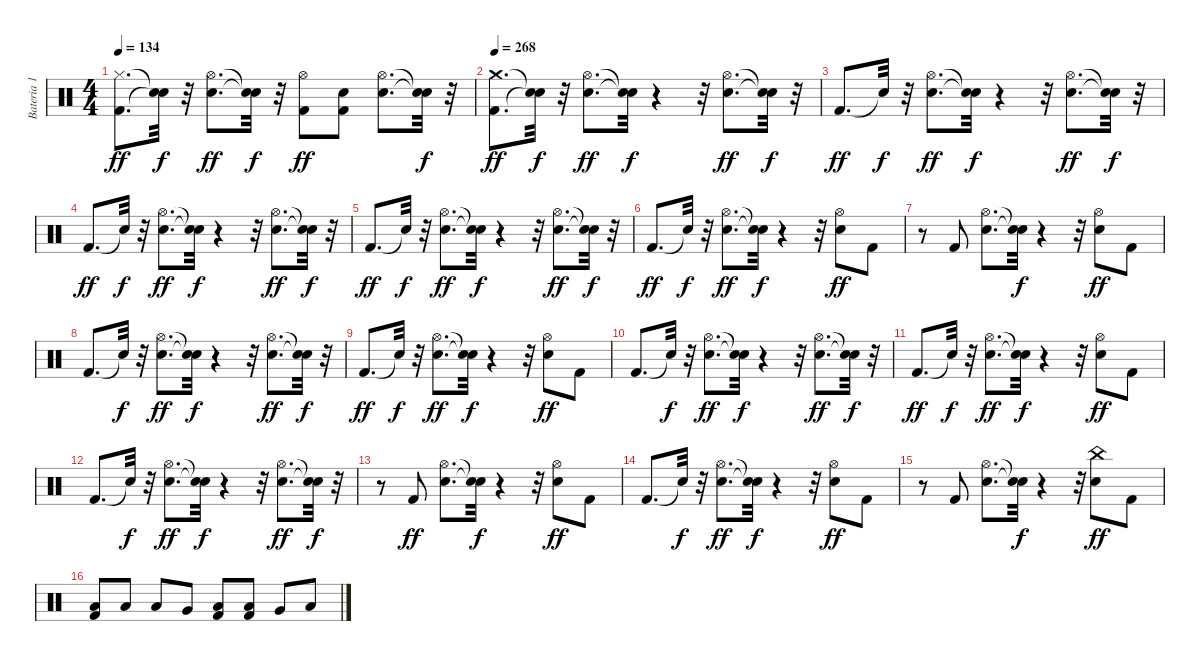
\track ("Bateria 1" "Bateria 1") {instrument percussion}
\staff {score}
\articulation defaults
\ts (4 4)
\tempo 134
\clef neutral
\ks c
("Kick (hit) 2" "Hi-Hat (closed)").8{d dy ff} ("Snare (hit)"{t} "Snare (hit)"{t}).32{dy f} r.32 ("Electric Snare (hit)" "Hi-Hat (open)").8{d dy ff} ("Snare (hit)"{t} "Snare (hit)"{t}).32{dy f} r.32 ("Kick (hit) 2" "Hi-Hat (open)").8{dy ff} ("Kick (hit) 2" "Electric Snare (hit)").8 ("Electric Snare (hit)" "Hi-Hat (open)").8{d} ("Snare (hit)"{t} "Snare (hit)"{t}).32{dy f} r.32 |
\tempo 268
("Kick (hit) 2" "Crash medium (hit)").8{d dy ff} ("Snare (hit)"{t} "Snare (hit)"{t}).32{dy f} r.32 ("Electric Snare (hit)" "Hi-Hat (open)").8{d dy ff} ("Snare (hit)"{t} "Snare (hit)"{t}).32{dy f} r.4 r.32 ("Electric Snare (hit)" "Hi-Hat (open)").8{d dy ff} ("Snare (hit)"{t} "Snare (hit)"{t}).32{dy f} r.32 |
"Kick (hit) 2".8{d dy ff} "Snare (hit)"{t}.32{dy f} r.32 ("Electric Snare (hit)" "Hi-Hat (open)").8{d dy ff} ("Snare (hit)"{t} "Snare (hit)"{t}).32{dy f} r.4 r.32 ("Electric Snare (hit)" "Hi-Hat (open)").8{d dy ff} ("Snare (hit)"{t} "Snare (hit)"{t}).32{dy f} r.32 |
"Kick (hit) 2".8{d dy ff} "Snare (hit)"{t}.32{dy f} r.32 ("Electric Snare (hit)" "Hi-Hat (open)").8{d dy ff} ("Snare (hit)"{t} "Snare (hit)"{t}).32{dy f} r.4 r.32 ("Electric Snare (hit)" "Hi-Hat (open)").8{d dy ff} ("Snare (hit)"{t} "Snare (hit)"{t}).32{dy f} r.32 |
"Kick (hit) 2".8{d dy ff} "Snare (hit)"{t}.32{dy f} r.32 ("Electric Snare (hit)" "Hi-Hat (open)").8{d dy ff} ("Snare (hit)"{t} "Snare (hit)"{t}).32{dy f} r.4 r.32 ("Electric Snare (hit)" "Hi-Hat (open)").8{d dy ff} ("Snare (hit)"{t} "Snare (hit)"{t}).32{dy f} r.32 |
"Kick (hit) 2".8{d dy ff} "Snare (hit)"{t}.32{dy f} r.32 ("Electric Snare (hit)" "Hi-Hat (open)").8{d dy ff} ("Snare (hit)"{t} "Snare (hit)"{t}).32{dy f} r.4 r.32 ("Electric Snare (hit)" "Hi-Hat (open)").8{dy ff} "Kick (hit) 2".8 |
r.8 "Kick (hit) 2".8 ("Electric Snare (hit)" "Hi-Hat (open)").8{d} ("Snare (hit)"{t} "Snare (hit)"{t}).32{dy f} r.4 r.32 ("Electric Snare (hit)" "Hi-Hat (open)").8{dy ff} "Kick (hit) 2".8 |
"Kick (hit) 2".8{d} "Snare (hit)"{t}.32{dy f} r.32 ("Electric Snare (hit)" "Hi-Hat (open)").8{d dy ff} ("Snare (hit)"{t} "Snare (hit)"{t}).32{dy f} r.4 r.32 ("Electric Snare (hit)" "Hi-Hat (open)").8{d dy ff} ("Snare (hit)"{t} "Snare (hit)"{t}).32{dy f} r.32 |
"Kick (hit) 2".8{d dy ff} "Snare (hit)"{t}.32{dy f} r.32 ("Electric Snare (hit)" "Hi-Hat (open)").8{d dy ff} ("Snare (hit)"{t} "Snare (hit)"{t}).32{dy f} r.4 r.32 ("Electric Snare (hit)" "Hi-Hat (open)").8{dy ff} "Kick (hit) 2".8 |
"Kick (hit) 2".8{d} "Snare (hit)"{t}.32{dy f} r.32 ("Electric Snare (hit)" "Hi-Hat (open)").8{d dy ff} ("Snare (hit)"{t} "Snare (hit)"{t}).32{dy f} r.4 r.32 ("Electric Snare (hit)" "Hi-Hat (open)").8{d dy ff} ("Snare (hit)"{t} "Snare (hit)"{t}).32{dy f} r.32 |
"Kick (hit) 2".8{d dy ff} "Snare (hit)"{t}.32{dy f} r.32 ("Electric Snare (hit)" "Hi-Hat (open)").8{d dy ff} ("Snare (hit)"{t} "Snare (hit)"{t}).32{dy f} r.4 r.32 ("Electric Snare (hit)" "Hi-Hat (open)").8{dy ff} "Kick (hit) 2".8 |
"Kick (hit) 2".8{d} "Snare (hit)"{t}.32{dy f} r.32 ("Electric Snare (hit)" "Hi-Hat (open)").8{d dy ff} ("Snare (hit)"{t} "Snare (hit)"{t}).32{dy f} r.4 r.32 ("Electric Snare (hit)" "Hi-Hat (open)").8{d dy ff} ("Snare (hit)"{t} "Snare (hit)"{t}).32{dy f} r.32 |
r.8 "Kick (hit) 2".8{dy ff} ("Electric Snare (hit)" "Hi-Hat (open)").8{d} ("Snare (hit)"{t} "Snare (hit)"{t}).32{dy f} r.4 r.32 ("Electric Snare (hit)" "Hi-Hat (open)").8{dy ff} "Kick (hit) 2".8 |
"Kick (hit) 2".8{d} "Snare (hit)"{t}.32{dy f} r.32 ("Electric Snare (hit)" "Hi-Hat (open)").8{d dy ff} ("Snare (hit)"{t} "Snare (hit)"{t}).32{dy f} r.4 r.32 ("Electric Snare (hit)" "Hi-Hat (open)").8{dy ff} "Kick (hit) 2".8 |
r.8 "Kick (hit) 2".8 ("Electric Snare (hit)" "Hi-Hat (open)").8{d} ("Snare (hit)"{t} "Snare (hit)"{t}).32{dy f} r.4 r.32 ("Electric Snare (hit)" "China (hit)").8{dy ff} "Kick (hit) 2".8 |
("Kick (hit) 2" "Low Floor Tom (hit)").8 "Low Floor Tom (hit)".8 "Low Tom (hit)".8 "Very Low Tom (hit)".8 ("Kick (hit) 2" "Low Floor Tom (hit)").8 ("Kick (hit) 2" "Low Tom (hit)").8 "Very Low Tom (hit)".8 "Low Floor Tom (hit)".8
